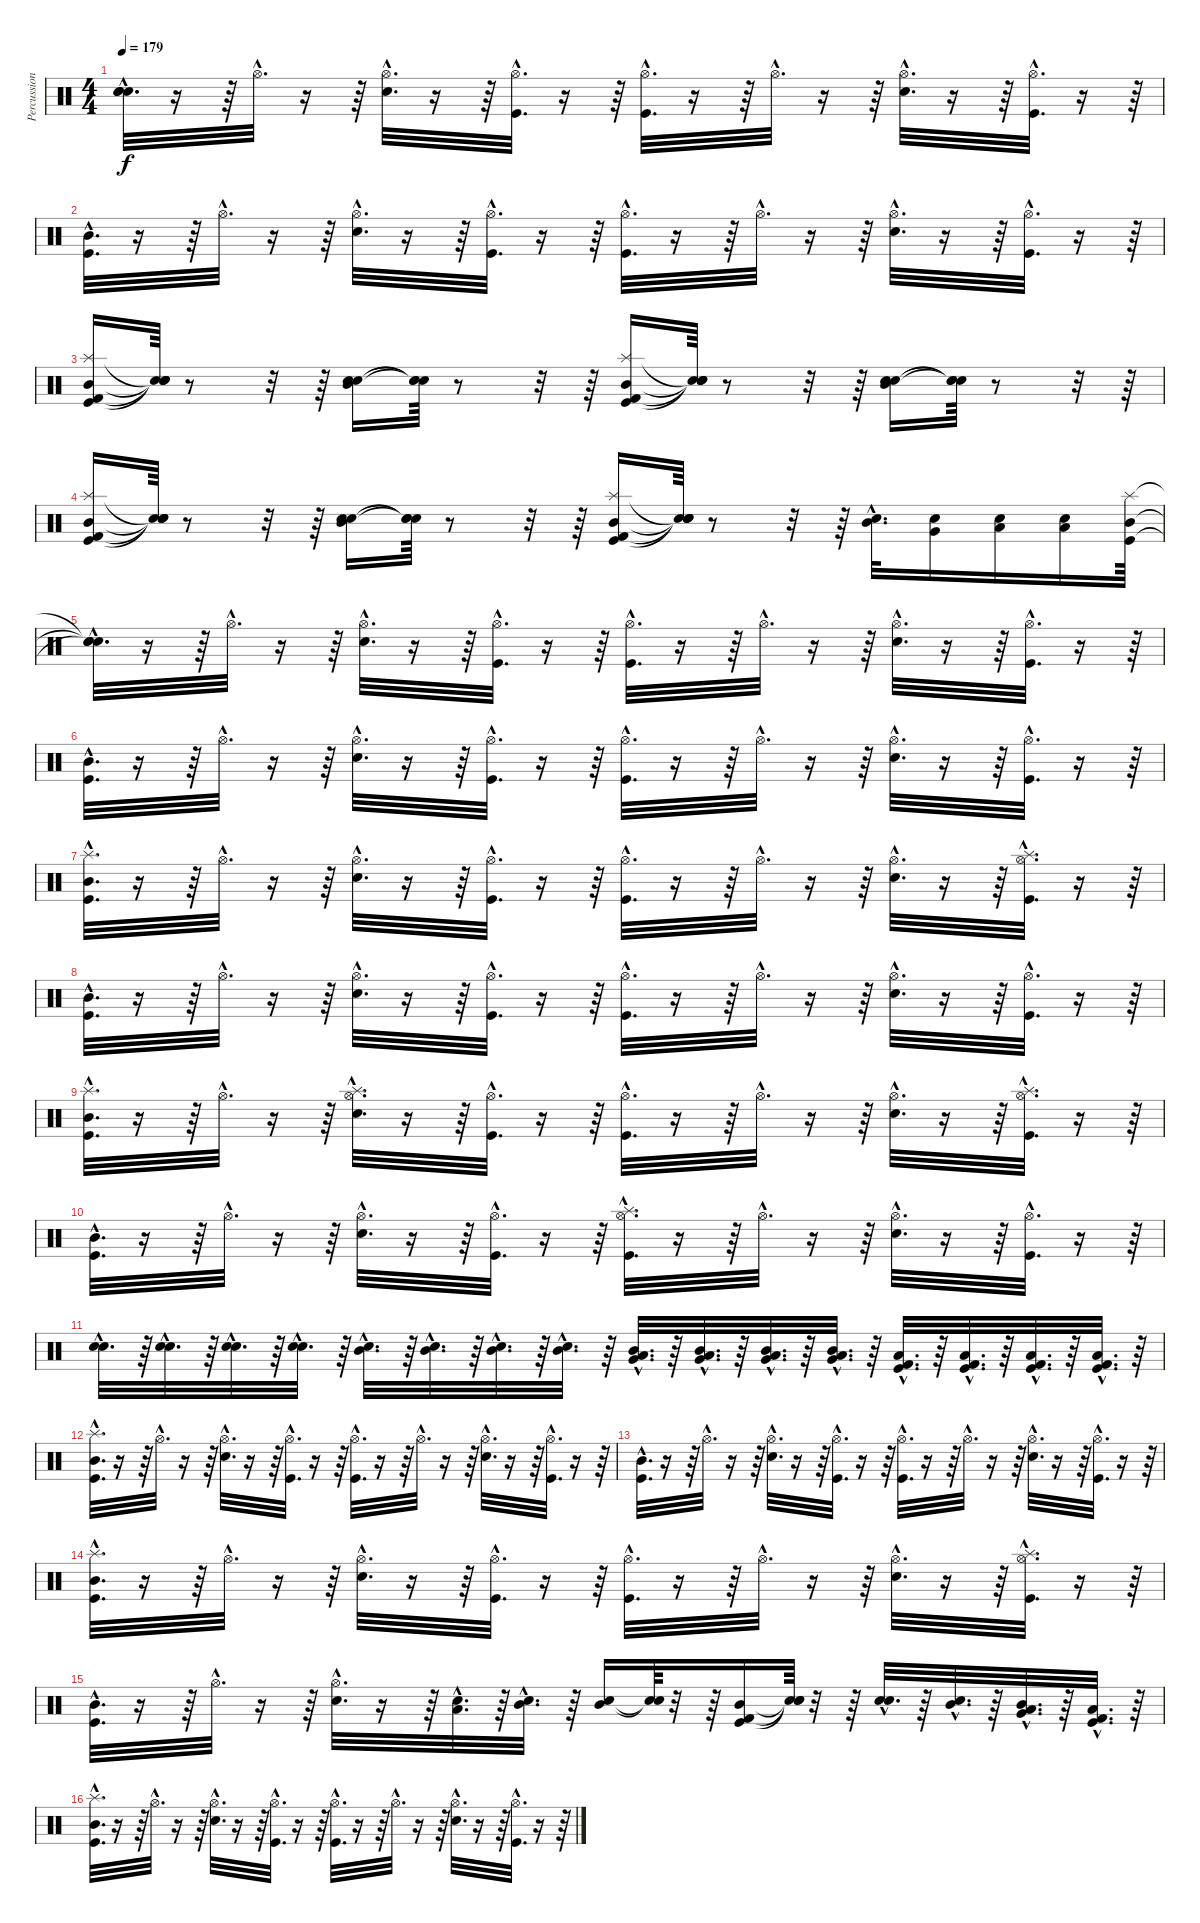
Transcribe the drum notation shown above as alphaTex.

\track ("Percussion" "Percussion") {instrument percussion}
\staff {score}
\articulation defaults
\ts (4 4)
\tempo 179
\clef neutral
\ks c
("Snare (hit)"{hac t} "Snare (hit)"{hac t} "Snare (hit)"{hac t}).32{d dy f} r.16 r.64 "Hi-Hat (open)"{hac}.32{d} r.16 r.64 ("Hi-Hat (open)"{hac} "Snare (hit) 2"{hac}).32{d} r.16 r.64 ("Hi-Hat (open)"{hac} "Kick (hit)"{hac}).32{d} r.16 r.64 ("Hi-Hat (open)"{hac} "Kick (hit)"{hac}).32{d} r.16 r.64 "Hi-Hat (open)"{hac}.32{d} r.16 r.64 ("Hi-Hat (open)"{hac} "Snare (hit) 2"{hac}).32{d} r.16 r.64 ("Hi-Hat (open)"{hac} "Kick (hit)"{hac}).32{d} r.16 r.64 |
("Mid Tom (hit)"{hac} "Kick (hit)"{hac}).32{d} r.16 r.64 "Hi-Hat (open)"{hac}.32{d} r.16 r.64 ("Hi-Hat (open)"{hac} "Snare (hit) 2"{hac}).32{d} r.16 r.64 ("Hi-Hat (open)"{hac} "Kick (hit)"{hac}).32{d} r.16 r.64 ("Hi-Hat (open)"{hac} "Kick (hit)"{hac}).32{d} r.16 r.64 "Hi-Hat (open)"{hac}.32{d} r.16 r.64 ("Hi-Hat (open)"{hac} "Snare (hit) 2"{hac}).32{d} r.16 r.64 ("Hi-Hat (open)"{hac} "Kick (hit)"{hac}).32{d} r.16 r.64 |
("Mid Tom (hit)" "Kick (hit)" "Splash (hit)" "Kick (hit) 2").16 ("Snare (hit)"{t} "Snare (hit)"{t} "Snare (hit)"{t} "Snare (hit)"{t}).64 r.8 r.32 r.64 ("Mid Tom (hit)" "Snare (hit) 2" "Electric Snare (hit)").16 ("Snare (hit)"{t} "Snare (hit)"{t} "Snare (hit)"{t}).64 r.8 r.32 r.64 ("Mid Tom (hit)" "Kick (hit)" "Splash (hit)" "Kick (hit) 2").16 ("Snare (hit)"{t} "Snare (hit)"{t} "Snare (hit)"{t} "Snare (hit)"{t}).64 r.8 r.32 r.64 ("Mid Tom (hit)" "Snare (hit) 2" "Electric Snare (hit)").16 ("Snare (hit)"{t} "Snare (hit)"{t} "Snare (hit)"{t}).64 r.8 r.32 r.64 |
("Mid Tom (hit)" "Kick (hit)" "Splash (hit)" "Kick (hit) 2").16 ("Snare (hit)"{t} "Snare (hit)"{t} "Snare (hit)"{t} "Snare (hit)"{t}).64 r.8 r.32 r.64 ("Mid Tom (hit)" "Snare (hit) 2" "Electric Snare (hit)").16 ("Snare (hit)"{t} "Snare (hit)"{t} "Snare (hit)"{t}).64 r.8 r.32 r.64 ("Mid Tom (hit)" "Kick (hit)" "Splash (hit)" "Kick (hit) 2").16 ("Snare (hit)"{t} "Snare (hit)"{t} "Snare (hit)"{t} "Snare (hit)"{t}).64 r.8 r.32 r.64 ("Electric Snare (hit)"{hac} "Mid Tom (hit)"{hac}).32{d} ("Electric Snare (hit)" "Very Low Tom (hit)").16 ("Electric Snare (hit)" "Low Tom (hit)").16 ("Electric Snare (hit)" "Low Tom (hit)").16 ("Splash (hit)" "Mid Tom (hit)" "Kick (hit)").64 |
("Snare (hit)"{hac t} "Snare (hit)"{hac t} "Snare (hit)"{hac t}).32{d} r.16 r.64 "Hi-Hat (open)"{hac}.32{d} r.16 r.64 ("Hi-Hat (open)"{hac} "Snare (hit) 2"{hac}).32{d} r.16 r.64 ("Hi-Hat (open)"{hac} "Kick (hit)"{hac}).32{d} r.16 r.64 ("Hi-Hat (open)"{hac} "Kick (hit)"{hac}).32{d} r.16 r.64 "Hi-Hat (open)"{hac}.32{d} r.16 r.64 ("Hi-Hat (open)"{hac} "Snare (hit) 2"{hac}).32{d} r.16 r.64 ("Hi-Hat (open)"{hac} "Kick (hit)"{hac}).32{d} r.16 r.64 |
("Mid Tom (hit)"{hac} "Kick (hit)"{hac}).32{d} r.16 r.64 "Hi-Hat (open)"{hac}.32{d} r.16 r.64 ("Hi-Hat (open)"{hac} "Snare (hit) 2"{hac}).32{d} r.16 r.64 ("Hi-Hat (open)"{hac} "Kick (hit)"{hac}).32{d} r.16 r.64 ("Hi-Hat (open)"{hac} "Kick (hit)"{hac}).32{d} r.16 r.64 "Hi-Hat (open)"{hac}.32{d} r.16 r.64 ("Hi-Hat (open)"{hac} "Snare (hit) 2"{hac}).32{d} r.16 r.64 ("Hi-Hat (open)"{hac} "Kick (hit)"{hac}).32{d} r.16 r.64 |
("Splash (hit)"{hac} "Mid Tom (hit)"{hac} "Kick (hit)"{hac}).32{d} r.16 r.64 "Hi-Hat (open)"{hac}.32{d} r.16 r.64 ("Hi-Hat (open)"{hac} "Snare (hit) 2"{hac}).32{d} r.16 r.64 ("Hi-Hat (open)"{hac} "Kick (hit)"{hac}).32{d} r.16 r.64 ("Hi-Hat (open)"{hac} "Kick (hit)"{hac}).32{d} r.16 r.64 "Hi-Hat (open)"{hac}.32{d} r.16 r.64 ("Hi-Hat (open)"{hac} "Snare (hit) 2"{hac}).32{d} r.16 r.64 ("Splash (hit)"{hac} "Hi-Hat (open)"{hac} "Kick (hit)"{hac}).32{d} r.16 r.64 |
("Mid Tom (hit)"{hac} "Kick (hit)"{hac}).32{d} r.16 r.64 "Hi-Hat (open)"{hac}.32{d} r.16 r.64 ("Hi-Hat (open)"{hac} "Snare (hit) 2"{hac}).32{d} r.16 r.64 ("Hi-Hat (open)"{hac} "Kick (hit)"{hac}).32{d} r.16 r.64 ("Hi-Hat (open)"{hac} "Kick (hit)"{hac}).32{d} r.16 r.64 "Hi-Hat (open)"{hac}.32{d} r.16 r.64 ("Hi-Hat (open)"{hac} "Snare (hit) 2"{hac}).32{d} r.16 r.64 ("Hi-Hat (open)"{hac} "Kick (hit)"{hac}).32{d} r.16 r.64 |
("Splash (hit)"{hac} "Mid Tom (hit)"{hac} "Kick (hit)"{hac}).32{d} r.16 r.64 "Hi-Hat (open)"{hac}.32{d} r.16 r.64 ("Splash (hit)"{hac} "Hi-Hat (open)"{hac} "Snare (hit) 2"{hac}).32{d} r.16 r.64 ("Hi-Hat (open)"{hac} "Kick (hit)"{hac}).32{d} r.16 r.64 ("Hi-Hat (open)"{hac} "Kick (hit)"{hac}).32{d} r.16 r.64 "Hi-Hat (open)"{hac}.32{d} r.16 r.64 ("Hi-Hat (open)"{hac} "Snare (hit) 2"{hac}).32{d} r.16 r.64 ("Splash (hit)"{hac} "Hi-Hat (open)"{hac} "Kick (hit)"{hac}).32{d} r.16 r.64 |
("Mid Tom (hit)"{hac} "Kick (hit)"{hac}).32{d} r.16 r.64 "Hi-Hat (open)"{hac}.32{d} r.16 r.64 ("Hi-Hat (open)"{hac} "Snare (hit) 2"{hac}).32{d} r.16 r.64 ("Hi-Hat (open)"{hac} "Kick (hit)"{hac}).32{d} r.16 r.64 ("Splash (hit)"{hac} "Hi-Hat (open)"{hac} "Kick (hit)"{hac}).32{d} r.16 r.64 "Hi-Hat (open)"{hac}.32{d} r.16 r.64 ("Hi-Hat (open)"{hac} "Snare (hit) 2"{hac}).32{d} r.16 r.64 ("Hi-Hat (open)"{hac} "Kick (hit)"{hac}).32{d} r.16 r.64 |
("Electric Snare (hit)"{hac} "Snare (hit) 2"{hac}).32{d} r.64 ("Electric Snare (hit)"{hac} "Snare (hit) 2"{hac}).32{d} r.64 ("Electric Snare (hit)"{hac} "Snare (hit) 2"{hac}).32{d} r.64 ("Electric Snare (hit)"{hac} "Snare (hit) 2"{hac}).32{d} r.64 ("Snare (hit) 2"{hac} "Mid Tom (hit)"{hac}).32{d} r.64 ("Snare (hit) 2"{hac} "Mid Tom (hit)"{hac}).32{d} r.64 ("Snare (hit) 2"{hac} "Mid Tom (hit)"{hac}).32{d} r.64 ("Snare (hit) 2"{hac} "Mid Tom (hit)"{hac}).32{d} r.64 ("Mid Tom (hit)"{hac} "Very Low Tom (hit)"{hac} "Low Floor Tom (hit)"{hac}).32{d} r.64 ("Mid Tom (hit)"{hac} "Very Low Tom (hit)"{hac} "Low Floor Tom (hit)"{hac}).32{d} r.64 ("Mid Tom (hit)"{hac} "Very Low Tom (hit)"{hac} "Low Floor Tom (hit)"{hac}).32{d} r.64 ("Mid Tom (hit)"{hac} "Very Low Tom (hit)"{hac} "Low Floor Tom (hit)"{hac}).32{d} r.64 ("Kick (hit)"{hac} "Kick (hit) 2"{hac} "Low Floor Tom (hit)"{hac}).32{d} r.64 ("Kick (hit)"{hac} "Kick (hit) 2"{hac} "Low Floor Tom (hit)"{hac}).32{d} r.64 ("Kick (hit)"{hac} "Kick (hit) 2"{hac} "Low Floor Tom (hit)"{hac}).32{d} r.64 ("Kick (hit)"{hac} "Kick (hit) 2"{hac} "Low Floor Tom (hit)"{hac}).32{d} r.64 |
("Splash (hit)"{hac} "Mid Tom (hit)"{hac} "Kick (hit)"{hac}).32{d} r.16 r.64 "Hi-Hat (open)"{hac}.32{d} r.16 r.64 ("Hi-Hat (open)"{hac} "Snare (hit) 2"{hac}).32{d} r.16 r.64 ("Hi-Hat (open)"{hac} "Kick (hit)"{hac}).32{d} r.16 r.64 ("Hi-Hat (open)"{hac} "Kick (hit)"{hac}).32{d} r.16 r.64 "Hi-Hat (open)"{hac}.32{d} r.16 r.64 ("Hi-Hat (open)"{hac} "Snare (hit) 2"{hac}).32{d} r.16 r.64 ("Hi-Hat (open)"{hac} "Kick (hit)"{hac}).32{d} r.16 r.64 |
("Mid Tom (hit)"{hac} "Kick (hit)"{hac}).32{d} r.16 r.64 "Hi-Hat (open)"{hac}.32{d} r.16 r.64 ("Hi-Hat (open)"{hac} "Snare (hit) 2"{hac}).32{d} r.16 r.64 ("Hi-Hat (open)"{hac} "Kick (hit)"{hac}).32{d} r.16 r.64 ("Hi-Hat (open)"{hac} "Kick (hit)"{hac}).32{d} r.16 r.64 "Hi-Hat (open)"{hac}.32{d} r.16 r.64 ("Hi-Hat (open)"{hac} "Snare (hit) 2"{hac}).32{d} r.16 r.64 ("Hi-Hat (open)"{hac} "Kick (hit)"{hac}).32{d} r.16 r.64 |
("Splash (hit)"{hac} "Mid Tom (hit)"{hac} "Kick (hit)"{hac}).32{d} r.16 r.64 "Hi-Hat (open)"{hac}.32{d} r.16 r.64 ("Hi-Hat (open)"{hac} "Snare (hit) 2"{hac}).32{d} r.16 r.64 ("Hi-Hat (open)"{hac} "Kick (hit)"{hac}).32{d} r.16 r.64 ("Hi-Hat (open)"{hac} "Kick (hit)"{hac}).32{d} r.16 r.64 "Hi-Hat (open)"{hac}.32{d} r.16 r.64 ("Hi-Hat (open)"{hac} "Snare (hit) 2"{hac}).32{d} r.16 r.64 ("Splash (hit)"{hac} "Hi-Hat (open)"{hac} "Kick (hit)"{hac}).32{d} r.16 r.64 |
("Mid Tom (hit)"{hac} "Kick (hit)"{hac}).32{d} r.16 r.64 "Hi-Hat (open)"{hac}.32{d} r.16 r.64 ("Hi-Hat (open)"{hac} "Snare (hit) 2"{hac}).32{d} r.16 r.64 ("Snare (hit) 2"{hac} "Low Tom (hit)"{hac}).32{d} r.64 ("Snare (hit) 2"{hac} "Mid Tom (hit)"{hac}).32{d} r.64 ("Snare (hit) 2" "Mid Tom (hit)").16 ("Snare (hit)"{t} "Snare (hit)"{t}).64 r.32 r.64 ("Mid Tom (hit)" "Kick (hit)" "Kick (hit) 2").16 ("Snare (hit)"{t} "Snare (hit)"{t} "Snare (hit)"{t}).64 r.32 r.64 ("Electric Snare (hit)"{hac} "Snare (hit) 2"{hac}).32{d} r.64 ("Snare (hit) 2"{hac} "Mid Tom (hit)"{hac}).32{d} r.64 ("Very Low Tom (hit)"{hac} "Mid Tom (hit)"{hac} "Low Floor Tom (hit)"{hac}).32{d} r.64 ("Kick (hit)"{hac} "Kick (hit) 2"{hac} "Low Tom (hit)"{hac}).32{d} r.64 |
("Splash (hit)"{hac} "Mid Tom (hit)"{hac} "Kick (hit)"{hac}).32{d} r.16 r.64 "Hi-Hat (open)"{hac}.32{d} r.16 r.64 ("Hi-Hat (open)"{hac} "Snare (hit) 2"{hac}).32{d} r.16 r.64 ("Hi-Hat (open)"{hac} "Kick (hit)"{hac}).32{d} r.16 r.64 ("Hi-Hat (open)"{hac} "Kick (hit)"{hac}).32{d} r.16 r.64 "Hi-Hat (open)"{hac}.32{d} r.16 r.64 ("Hi-Hat (open)"{hac} "Snare (hit) 2"{hac}).32{d} r.16 r.64 ("Hi-Hat (open)"{hac} "Kick (hit)"{hac}).32{d} r.16 r.64
